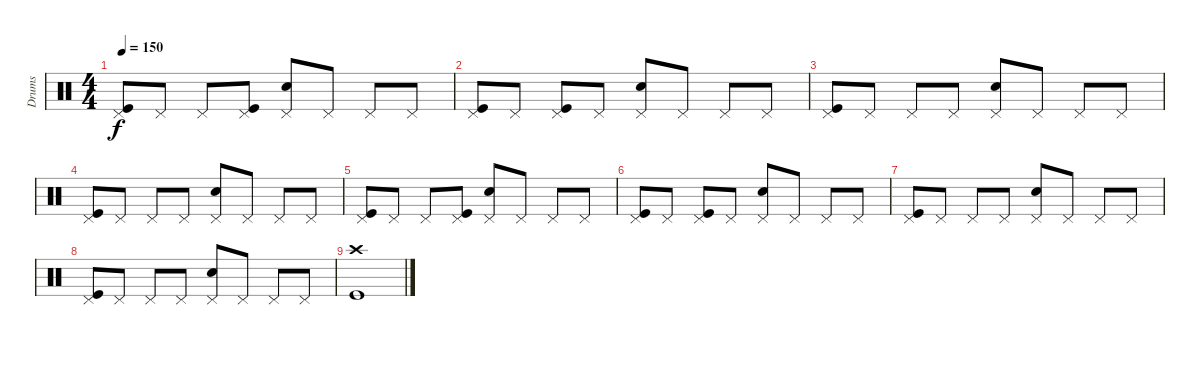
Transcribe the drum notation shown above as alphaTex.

\track ("Drums" "Drums") {instrument percussion}
\staff {score}
\articulation defaults
\ts (4 4)
\tempo 150
\clef neutral
\ks c
("Pedal Hi-Hat (hit)" "Kick (hit)").8{dy f} "Pedal Hi-Hat (hit)".8 "Pedal Hi-Hat (hit)".8 ("Pedal Hi-Hat (hit)" "Kick (hit)").8 ("Pedal Hi-Hat (hit)" "Snare (hit) 2").8 "Pedal Hi-Hat (hit)".8 "Pedal Hi-Hat (hit)".8 "Pedal Hi-Hat (hit)".8 |
("Pedal Hi-Hat (hit)" "Kick (hit)").8 "Pedal Hi-Hat (hit)".8 ("Pedal Hi-Hat (hit)" "Kick (hit)").8 "Pedal Hi-Hat (hit)".8 ("Pedal Hi-Hat (hit)" "Snare (hit) 2").8 "Pedal Hi-Hat (hit)".8 "Pedal Hi-Hat (hit)".8 "Pedal Hi-Hat (hit)".8 |
("Pedal Hi-Hat (hit)" "Kick (hit)").8 "Pedal Hi-Hat (hit)".8 "Pedal Hi-Hat (hit)".8 "Pedal Hi-Hat (hit)".8 ("Pedal Hi-Hat (hit)" "Snare (hit) 2").8 "Pedal Hi-Hat (hit)".8 "Pedal Hi-Hat (hit)".8 "Pedal Hi-Hat (hit)".8 |
("Pedal Hi-Hat (hit)" "Kick (hit)").8 "Pedal Hi-Hat (hit)".8 "Pedal Hi-Hat (hit)".8 "Pedal Hi-Hat (hit)".8 ("Pedal Hi-Hat (hit)" "Snare (hit) 2").8 "Pedal Hi-Hat (hit)".8 "Pedal Hi-Hat (hit)".8 "Pedal Hi-Hat (hit)".8 |
("Pedal Hi-Hat (hit)" "Kick (hit)").8 "Pedal Hi-Hat (hit)".8 "Pedal Hi-Hat (hit)".8 ("Pedal Hi-Hat (hit)" "Kick (hit)").8 ("Pedal Hi-Hat (hit)" "Snare (hit) 2").8 "Pedal Hi-Hat (hit)".8 "Pedal Hi-Hat (hit)".8 "Pedal Hi-Hat (hit)".8 |
("Pedal Hi-Hat (hit)" "Kick (hit)").8 "Pedal Hi-Hat (hit)".8 ("Pedal Hi-Hat (hit)" "Kick (hit)").8 "Pedal Hi-Hat (hit)".8 ("Pedal Hi-Hat (hit)" "Snare (hit) 2").8 "Pedal Hi-Hat (hit)".8 "Pedal Hi-Hat (hit)".8 "Pedal Hi-Hat (hit)".8 |
("Pedal Hi-Hat (hit)" "Kick (hit)").8 "Pedal Hi-Hat (hit)".8 "Pedal Hi-Hat (hit)".8 "Pedal Hi-Hat (hit)".8 ("Pedal Hi-Hat (hit)" "Snare (hit) 2").8 "Pedal Hi-Hat (hit)".8 "Pedal Hi-Hat (hit)".8 "Pedal Hi-Hat (hit)".8 |
("Pedal Hi-Hat (hit)" "Kick (hit)").8 "Pedal Hi-Hat (hit)".8 "Pedal Hi-Hat (hit)".8 "Pedal Hi-Hat (hit)".8 ("Pedal Hi-Hat (hit)" "Snare (hit) 2").8 "Pedal Hi-Hat (hit)".8 "Pedal Hi-Hat (hit)".8 "Pedal Hi-Hat (hit)".8 |
("Crash high (hit)" "Kick (hit)").1
